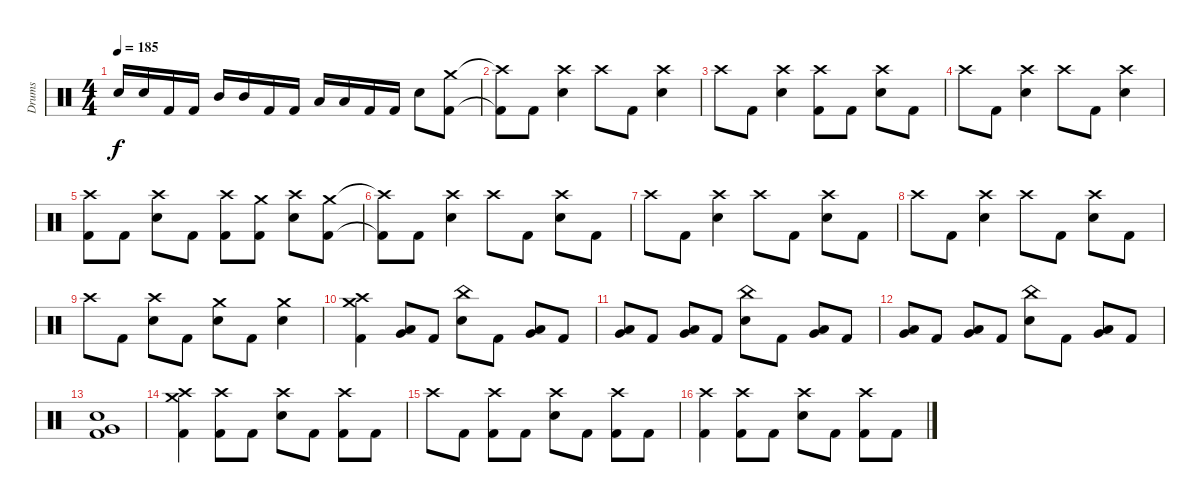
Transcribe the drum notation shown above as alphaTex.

\track ("Drums" "Drums") {instrument percussion}
\staff {score}
\articulation defaults
\ts (4 4)
\tempo 185
\clef neutral
\ks c "Electric Snare (hit)".16{dy f} "Electric Snare (hit)".16 "Kick (hit) 2".16 "Kick (hit) 2".16 "Mid Tom (hit)".16 "Mid Tom (hit)".16 "Kick (hit) 2".16 "Kick (hit) 2".16 "Low Tom (hit)".16 "Low Tom (hit)".16 "Kick (hit) 2".16 "Kick (hit) 2".16 "Electric Snare (hit)".8
("Crash medium (hit)" "Kick (hit) 2").8 |
("Crash high (hit)"{t} "Kick (hit) 2"{t}).8 "Kick (hit) 2".8 ("Crash high (hit)" "Electric Snare (hit)").4 "Crash high (hit)".8 "Kick (hit) 2".8 ("Crash high (hit)" "Electric Snare (hit)").4 |
"Crash high (hit)".8 "Kick (hit) 2".8 ("Crash high (hit)" "Electric Snare (hit)").4 ("Crash high (hit)" "Kick (hit) 2").8 "Kick (hit) 2".8 ("Crash high (hit)" "Electric Snare (hit)").8 "Kick (hit) 2".8 |
"Crash high (hit)".8 "Kick (hit) 2".8 ("Crash high (hit)" "Electric Snare (hit)").4 "Crash high (hit)".8 "Kick (hit) 2".8 ("Crash high (hit)" "Electric Snare (hit)").4 |
("Crash high (hit)" "Kick (hit) 2").8 "Kick (hit) 2".8 ("Crash high (hit)" "Electric Snare (hit)").8 "Kick (hit) 2".8 ("Crash high (hit)" "Kick (hit) 2").8 ("Crash medium (hit)" "Kick (hit) 2").8 ("Crash high (hit)" "Electric Snare (hit)").8{volume 0} ("Crash medium (hit)" "Kick (hit) 2").8{volume 16} |
("Crash high (hit)"{t} "Kick (hit) 2"{t}).8 "Kick (hit) 2".8 ("Crash high (hit)" "Electric Snare (hit)").4 "Crash high (hit)".8 "Kick (hit) 2".8 ("Crash high (hit)" "Electric Snare (hit)").8 "Kick (hit) 2".8 |
"Crash high (hit)".8 "Kick (hit) 2".8 ("Crash high (hit)" "Electric Snare (hit)").4 "Crash high (hit)".8 "Kick (hit) 2".8 ("Crash high (hit)" "Electric Snare (hit)").8 "Kick (hit) 2".8 |
"Crash high (hit)".8 "Kick (hit) 2".8 ("Crash high (hit)" "Electric Snare (hit)").4 "Crash high (hit)".8 "Kick (hit) 2".8 ("Crash high (hit)" "Electric Snare (hit)").8 "Kick (hit) 2".8 |
"Crash high (hit)".8 "Kick (hit) 2".8 ("Crash high (hit)" "Electric Snare (hit)").8 "Kick (hit) 2".8 ("Crash medium (hit)" "Electric Snare (hit)").8 "Kick (hit) 2".8 ("Crash medium (hit)" "Electric Snare (hit)").4 |
("Crash high (hit)" "Crash medium (hit)" "Kick (hit) 2").4 ("Very Low Tom (hit)" "Low Tom (hit)").8 "Kick (hit) 2".8 ("China (hit)" "Electric Snare (hit)").8 "Kick (hit) 2".8 ("Very Low Tom (hit)" "Low Tom (hit)").8 "Kick (hit) 2".8 |
("Very Low Tom (hit)" "Low Tom (hit)").8 "Kick (hit) 2".8 ("Very Low Tom (hit)" "Low Tom (hit)").8 "Kick (hit) 2".8 ("China (hit)" "Electric Snare (hit)").8 "Kick (hit) 2".8 ("Very Low Tom (hit)" "Low Tom (hit)").8 "Kick (hit) 2".8 |
("Very Low Tom (hit)" "Low Tom (hit)").8 "Kick (hit) 2".8 ("Very Low Tom (hit)" "Low Tom (hit)").8 "Kick (hit) 2".8 ("China (hit)" "Electric Snare (hit)").8 "Kick (hit) 2".8 ("Very Low Tom (hit)" "Low Tom (hit)").8 "Kick (hit) 2".8 |
("Very Low Tom (hit)" "Electric Snare (hit)" "Kick (hit) 2").1 |
("Crash high (hit)" "Crash medium (hit)" "Kick (hit) 2").4 ("Crash high (hit)" "Kick (hit) 2").8 "Kick (hit) 2".8 ("Crash high (hit)" "Electric Snare (hit)").8 "Kick (hit) 2".8 ("Crash high (hit)" "Kick (hit) 2").8 "Kick (hit) 2".8 |
"Crash high (hit)".8 "Kick (hit) 2".8 ("Crash high (hit)" "Kick (hit) 2").8 "Kick (hit) 2".8 ("Crash high (hit)" "Electric Snare (hit)").8 "Kick (hit) 2".8 ("Crash high (hit)" "Kick (hit) 2").8 "Kick (hit) 2".8 |
("Crash high (hit)" "Kick (hit) 2").4 ("Crash high (hit)" "Kick (hit) 2").8 "Kick (hit) 2".8 ("Crash high (hit)" "Electric Snare (hit)").8 "Kick (hit) 2".8 ("Crash high (hit)" "Kick (hit) 2").8 "Kick (hit) 2".8
